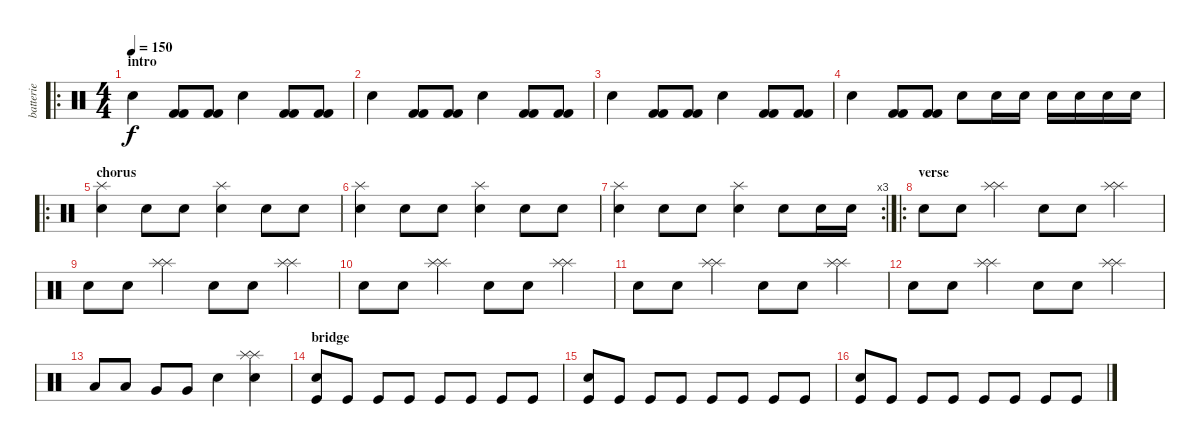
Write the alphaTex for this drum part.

\track ("batterie" "batterie") {instrument percussion}
\staff {score}
\articulation defaults
\ro
\ts (4 4)
\section ("" "intro")
\tempo 150
\clef neutral
\ks c "Electric Snare (hit)".4{dy f}
("Kick (hit) 2" "Kick (hit) 2").8 ("Kick (hit) 2" "Kick (hit) 2").8 "Electric Snare (hit)".4 ("Kick (hit) 2" "Kick (hit) 2").8 ("Kick (hit) 2" "Kick (hit) 2").8 |
"Electric Snare (hit)".4 ("Kick (hit) 2" "Kick (hit) 2").8 ("Kick (hit) 2" "Kick (hit) 2").8 "Electric Snare (hit)".4 ("Kick (hit) 2" "Kick (hit) 2").8 ("Kick (hit) 2" "Kick (hit) 2").8 |
"Electric Snare (hit)".4 ("Kick (hit) 2" "Kick (hit) 2").8 ("Kick (hit) 2" "Kick (hit) 2").8 "Electric Snare (hit)".4 ("Kick (hit) 2" "Kick (hit) 2").8 ("Kick (hit) 2" "Kick (hit) 2").8 |
"Electric Snare (hit)".4 ("Kick (hit) 2" "Kick (hit) 2").8 ("Kick (hit) 2" "Kick (hit) 2").8 "Electric Snare (hit)".8 "Electric Snare (hit)".16 "Electric Snare (hit)".16 "Electric Snare (hit)".16 "Electric Snare (hit)".16 "Electric Snare (hit)".16 "Electric Snare (hit)".16 |
\ro
\section ("" "chorus")
("Splash (hit)" "Electric Snare (hit)").4 "Snare (hit) 2".8 "Snare (hit) 2".8 ("Splash (hit)" "Electric Snare (hit)").4 "Snare (hit) 2".8 "Snare (hit) 2".8 |
("Splash (hit)" "Electric Snare (hit)").4 "Snare (hit) 2".8 "Snare (hit) 2".8 ("Splash (hit)" "Electric Snare (hit)").4 "Snare (hit) 2".8 "Snare (hit) 2".8 |
\rc 3
("Splash (hit)" "Electric Snare (hit)").4 "Snare (hit) 2".8 "Snare (hit) 2".8 ("Splash (hit)" "Electric Snare (hit)").4 "Snare (hit) 2".8 "Snare (hit) 2".16 "Snare (hit) 2".16 |
\ro
\section ("" "verse")
"Electric Snare (hit)".8 "Electric Snare (hit)".8 ("Splash (hit)" "Splash (hit)").4 "Electric Snare (hit)".8 "Electric Snare (hit)".8 ("Splash (hit)" "Splash (hit)").4 |
"Electric Snare (hit)".8 "Electric Snare (hit)".8 ("Splash (hit)" "Splash (hit)").4 "Electric Snare (hit)".8 "Electric Snare (hit)".8 ("Splash (hit)" "Splash (hit)").4 |
"Electric Snare (hit)".8 "Electric Snare (hit)".8 ("Splash (hit)" "Splash (hit)").4 "Electric Snare (hit)".8 "Electric Snare (hit)".8 ("Splash (hit)" "Splash (hit)").4 |
"Electric Snare (hit)".8 "Electric Snare (hit)".8 ("Splash (hit)" "Splash (hit)").4 "Electric Snare (hit)".8 "Electric Snare (hit)".8 ("Splash (hit)" "Splash (hit)").4 |
"Electric Snare (hit)".8 "Electric Snare (hit)".8 ("Splash (hit)" "Splash (hit)").4 "Electric Snare (hit)".8 "Electric Snare (hit)".8 ("Splash (hit)" "Splash (hit)").4 |
"Low Tom (hit)".8 "Low Tom (hit)".8 "Very Low Tom (hit)".8 "Very Low Tom (hit)".8 "Snare (hit) 2".4 ("Electric Snare (hit)" "Splash (hit)" "Splash (hit)").4 |
\section ("" "bridge")
("Snare (hit) 2" "Kick (hit)").8 "Kick (hit)".8 "Kick (hit)".8 "Kick (hit)".8 "Kick (hit)".8 "Kick (hit)".8 "Kick (hit)".8 "Kick (hit)".8 |
("Snare (hit) 2" "Kick (hit)").8 "Kick (hit)".8 "Kick (hit)".8 "Kick (hit)".8 "Kick (hit)".8 "Kick (hit)".8 "Kick (hit)".8 "Kick (hit)".8 |
("Snare (hit) 2" "Kick (hit)").8 "Kick (hit)".8 "Kick (hit)".8 "Kick (hit)".8 "Kick (hit)".8 "Kick (hit)".8 "Kick (hit)".8 "Kick (hit)".8
